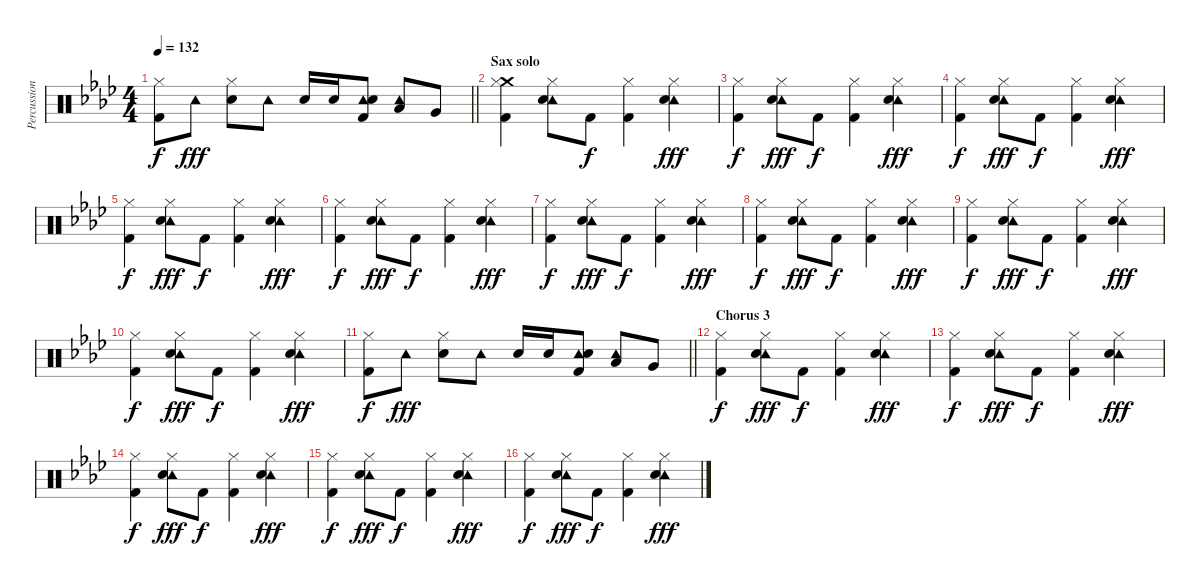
\track ("Percussion - Nigel Olsen/Ray Cooper" "Percussion") {instrument percussion}
\staff {score}
\articulation defaults
\ts (4 4)
\tempo 132
\clef neutral
\barLineRight lightlight
\ks ab
("Hi-Hat (closed)" "Kick (hit) 2").8{dy f} "Tambourine (hit)".8{dy fff} ("Hi-Hat (closed)" "Snare (hit) 2").8 "Tambourine (hit)".8 "Snare (hit) 2".16 "Snare (hit) 2".16 ("Tambourine (hit)" "Snare (hit) 2" "Kick (hit) 2").8 ("Tambourine (hit)" "Low Tom (hit)").8 "Very Low Tom (hit)".8 |
\section ("" "Sax solo")
("Crash medium (hit)" "Hi-Hat (closed)" "Kick (hit) 2").4 ("Tambourine (hit)" "Hi-Hat (closed)" "Snare (hit) 2").8 "Kick (hit) 2".8{dy f} ("Hi-Hat (closed)" "Kick (hit) 2").4 ("Tambourine (hit)" "Hi-Hat (closed)" "Snare (hit) 2").4{dy fff} |
("Hi-Hat (closed)" "Kick (hit) 2").4{dy f} ("Tambourine (hit)" "Hi-Hat (closed)" "Snare (hit) 2").8{dy fff} "Kick (hit) 2".8{dy f} ("Hi-Hat (closed)" "Kick (hit) 2").4 ("Tambourine (hit)" "Hi-Hat (closed)" "Snare (hit) 2").4{dy fff} |
("Hi-Hat (closed)" "Kick (hit) 2").4{dy f} ("Tambourine (hit)" "Hi-Hat (closed)" "Snare (hit) 2").8{dy fff} "Kick (hit) 2".8{dy f} ("Hi-Hat (closed)" "Kick (hit) 2").4 ("Tambourine (hit)" "Hi-Hat (closed)" "Snare (hit) 2").4{dy fff} |
("Hi-Hat (closed)" "Kick (hit) 2").4{dy f} ("Tambourine (hit)" "Hi-Hat (closed)" "Snare (hit) 2").8{dy fff} "Kick (hit) 2".8{dy f} ("Hi-Hat (closed)" "Kick (hit) 2").4 ("Tambourine (hit)" "Hi-Hat (closed)" "Snare (hit) 2").4{dy fff} |
("Hi-Hat (closed)" "Kick (hit) 2").4{dy f} ("Tambourine (hit)" "Hi-Hat (closed)" "Snare (hit) 2").8{dy fff} "Kick (hit) 2".8{dy f} ("Hi-Hat (closed)" "Kick (hit) 2").4 ("Tambourine (hit)" "Hi-Hat (closed)" "Snare (hit) 2").4{dy fff} |
("Hi-Hat (closed)" "Kick (hit) 2").4{dy f} ("Tambourine (hit)" "Hi-Hat (closed)" "Snare (hit) 2").8{dy fff} "Kick (hit) 2".8{dy f} ("Hi-Hat (closed)" "Kick (hit) 2").4 ("Tambourine (hit)" "Hi-Hat (closed)" "Snare (hit) 2").4{dy fff} |
("Hi-Hat (closed)" "Kick (hit) 2").4{dy f} ("Tambourine (hit)" "Hi-Hat (closed)" "Snare (hit) 2").8{dy fff} "Kick (hit) 2".8{dy f} ("Hi-Hat (closed)" "Kick (hit) 2").4 ("Tambourine (hit)" "Hi-Hat (closed)" "Snare (hit) 2").4{dy fff} |
("Hi-Hat (closed)" "Kick (hit) 2").4{dy f} ("Tambourine (hit)" "Hi-Hat (closed)" "Snare (hit) 2").8{dy fff} "Kick (hit) 2".8{dy f} ("Hi-Hat (closed)" "Kick (hit) 2").4 ("Tambourine (hit)" "Hi-Hat (closed)" "Snare (hit) 2").4{dy fff} |
("Hi-Hat (closed)" "Kick (hit) 2").4{dy f} ("Tambourine (hit)" "Hi-Hat (closed)" "Snare (hit) 2").8{dy fff} "Kick (hit) 2".8{dy f} ("Hi-Hat (closed)" "Kick (hit) 2").4 ("Tambourine (hit)" "Hi-Hat (closed)" "Snare (hit) 2").4{dy fff} |
\barLineRight lightlight
("Hi-Hat (closed)" "Kick (hit) 2").8{dy f} "Tambourine (hit)".8{dy fff} ("Hi-Hat (closed)" "Snare (hit) 2").8 "Tambourine (hit)".8 "Snare (hit) 2".16 "Snare (hit) 2".16 ("Tambourine (hit)" "Snare (hit) 2" "Kick (hit) 2").8 ("Tambourine (hit)" "Low Tom (hit)").8 "Very Low Tom (hit)".8 |
\section ("" "Chorus 3")
("Hi-Hat (closed)" "Kick (hit) 2").4{dy f} ("Tambourine (hit)" "Hi-Hat (closed)" "Snare (hit) 2").8{dy fff} "Kick (hit) 2".8{dy f} ("Hi-Hat (closed)" "Kick (hit) 2").4 ("Tambourine (hit)" "Hi-Hat (closed)" "Snare (hit) 2").4{dy fff} |
("Hi-Hat (closed)" "Kick (hit) 2").4{dy f} ("Tambourine (hit)" "Hi-Hat (closed)" "Snare (hit) 2").8{dy fff} "Kick (hit) 2".8{dy f} ("Hi-Hat (closed)" "Kick (hit) 2").4 ("Tambourine (hit)" "Hi-Hat (closed)" "Snare (hit) 2").4{dy fff} |
("Hi-Hat (closed)" "Kick (hit) 2").4{dy f} ("Tambourine (hit)" "Hi-Hat (closed)" "Snare (hit) 2").8{dy fff} "Kick (hit) 2".8{dy f} ("Hi-Hat (closed)" "Kick (hit) 2").4 ("Tambourine (hit)" "Hi-Hat (closed)" "Snare (hit) 2").4{dy fff} |
("Hi-Hat (closed)" "Kick (hit) 2").4{dy f} ("Tambourine (hit)" "Hi-Hat (closed)" "Snare (hit) 2").8{dy fff} "Kick (hit) 2".8{dy f} ("Hi-Hat (closed)" "Kick (hit) 2").4 ("Tambourine (hit)" "Hi-Hat (closed)" "Snare (hit) 2").4{dy fff} |
("Hi-Hat (closed)" "Kick (hit) 2").4{dy f} ("Tambourine (hit)" "Hi-Hat (closed)" "Snare (hit) 2").8{dy fff} "Kick (hit) 2".8{dy f} ("Hi-Hat (closed)" "Kick (hit) 2").4 ("Tambourine (hit)" "Hi-Hat (closed)" "Snare (hit) 2").4{dy fff}
